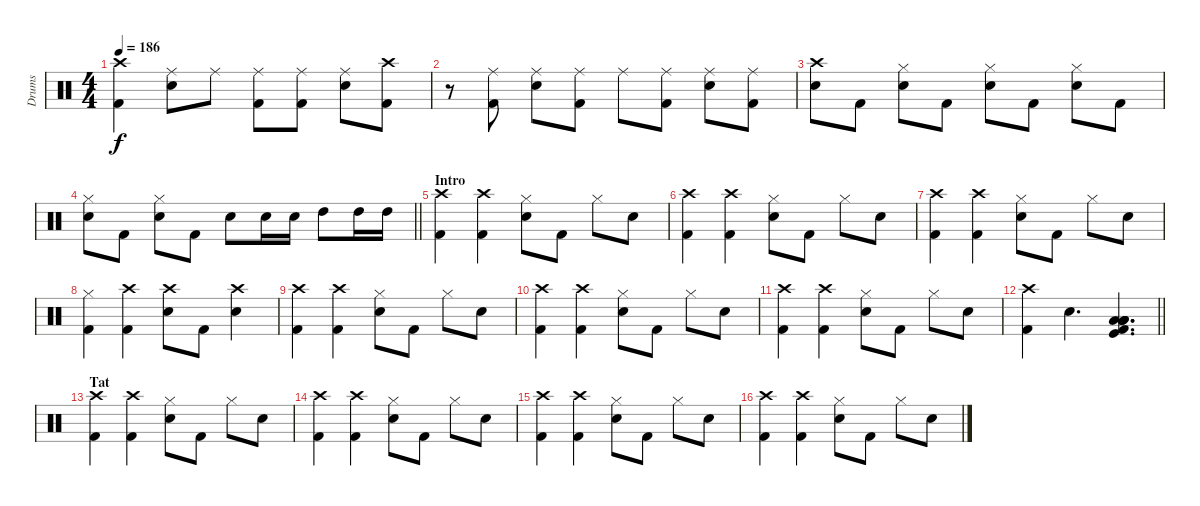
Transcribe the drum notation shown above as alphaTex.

\track ("Drums" "Drums") {instrument percussion}
\staff {score}
\articulation defaults
\ts (4 4)
\tempo 186
\clef neutral
\ks c
("Crash high (hit)" "Kick (hit) 2").4{dy f} ("Ride (middle)" "Snare (hit) 2").8 "Ride (middle)".8 ("Ride (middle)" "Kick (hit) 2").8 ("Ride (middle)" "Kick (hit) 2").8 ("Ride (middle)" "Snare (hit) 2").8 ("Crash high (hit)" "Kick (hit) 2").8 |
r.8 ("Ride (middle)" "Kick (hit) 2").8 ("Ride (middle)" "Snare (hit) 2").8 ("Ride (middle)" "Kick (hit) 2").8 "Ride (middle)".8 ("Ride (middle)" "Kick (hit) 2").8 ("Ride (middle)" "Snare (hit) 2").8 ("Ride (middle)" "Kick (hit) 2").8 |
("Crash high (hit)" "Snare (hit) 2").8 "Kick (hit) 2".8 ("Hi-Hat (closed)" "Snare (hit) 2").8 "Kick (hit) 2".8 ("Hi-Hat (closed)" "Snare (hit) 2").8 "Kick (hit) 2".8 ("Hi-Hat (closed)" "Snare (hit) 2").8 "Kick (hit) 2".8 |
\barLineRight lightlight
("Hi-Hat (closed)" "Snare (hit) 2").8 "Kick (hit) 2".8 ("Hi-Hat (closed)" "Snare (hit) 2").8 "Kick (hit) 2".8 "Snare (hit) 2".8 "Snare (hit) 2".16 "Snare (hit) 2".16 "High Tom (hit)".8 "High Tom (hit)".16 "High Tom (hit)".16 |
\section ("" "Intro")
("Crash high (hit)" "Kick (hit) 2").4 ("Crash high (hit)" "Kick (hit) 2").4 ("Hi-Hat (closed)" "Snare (hit) 2").8 "Kick (hit) 2".8 "Hi-Hat (closed)".8 "Snare (hit) 2".8 |
("Crash high (hit)" "Kick (hit) 2").4 ("Crash high (hit)" "Kick (hit) 2").4 ("Hi-Hat (closed)" "Snare (hit) 2").8 "Kick (hit) 2".8 "Hi-Hat (closed)".8 "Snare (hit) 2".8 |
("Crash high (hit)" "Kick (hit) 2").4 ("Crash high (hit)" "Kick (hit) 2").4 ("Hi-Hat (closed)" "Snare (hit) 2").8 "Kick (hit) 2".8 "Hi-Hat (closed)".8 "Snare (hit) 2".8 |
("Hi-Hat (closed)" "Kick (hit) 2").4 ("Crash high (hit)" "Kick (hit) 2").4 ("Crash high (hit)" "Snare (hit) 2").8 "Kick (hit) 2".8 ("Crash high (hit)" "Snare (hit) 2").4 |
("Crash high (hit)" "Kick (hit) 2").4 ("Crash high (hit)" "Kick (hit) 2").4 ("Hi-Hat (closed)" "Snare (hit) 2").8 "Kick (hit) 2".8 "Hi-Hat (closed)".8 "Snare (hit) 2".8 |
("Crash high (hit)" "Kick (hit) 2").4 ("Crash high (hit)" "Kick (hit) 2").4 ("Hi-Hat (closed)" "Snare (hit) 2").8 "Kick (hit) 2".8 "Hi-Hat (closed)".8 "Snare (hit) 2".8 |
("Crash high (hit)" "Kick (hit) 2").4 ("Crash high (hit)" "Kick (hit) 2").4 ("Hi-Hat (closed)" "Snare (hit) 2").8 "Kick (hit) 2".8 "Hi-Hat (closed)".8 "Snare (hit) 2".8 |
\barLineRight lightlight
("Crash high (hit)" "Kick (hit) 2").4 "Snare (hit) 2".4{d} ("Low Tom (hit)" "Kick (hit) 2" "Kick (hit)" "Low Floor Tom (hit)" "Low Floor Tom (hit)" "Low Floor Tom (hit)").4{d} |
\section ("" "Tat")
("Crash high (hit)" "Kick (hit) 2").4 ("Crash high (hit)" "Kick (hit) 2").4 ("Hi-Hat (closed)" "Snare (hit) 2").8 "Kick (hit) 2".8 "Hi-Hat (closed)".8 "Snare (hit) 2".8 |
("Crash high (hit)" "Kick (hit) 2").4 ("Crash high (hit)" "Kick (hit) 2").4 ("Hi-Hat (closed)" "Snare (hit) 2").8 "Kick (hit) 2".8 "Hi-Hat (closed)".8 "Snare (hit) 2".8 |
("Crash high (hit)" "Kick (hit) 2").4 ("Crash high (hit)" "Kick (hit) 2").4 ("Hi-Hat (closed)" "Snare (hit) 2").8 "Kick (hit) 2".8 "Hi-Hat (closed)".8 "Snare (hit) 2".8 |
("Crash high (hit)" "Kick (hit) 2").4 ("Crash high (hit)" "Kick (hit) 2").4 ("Hi-Hat (closed)" "Snare (hit) 2").8 "Kick (hit) 2".8 "Hi-Hat (closed)".8 "Snare (hit) 2".8
